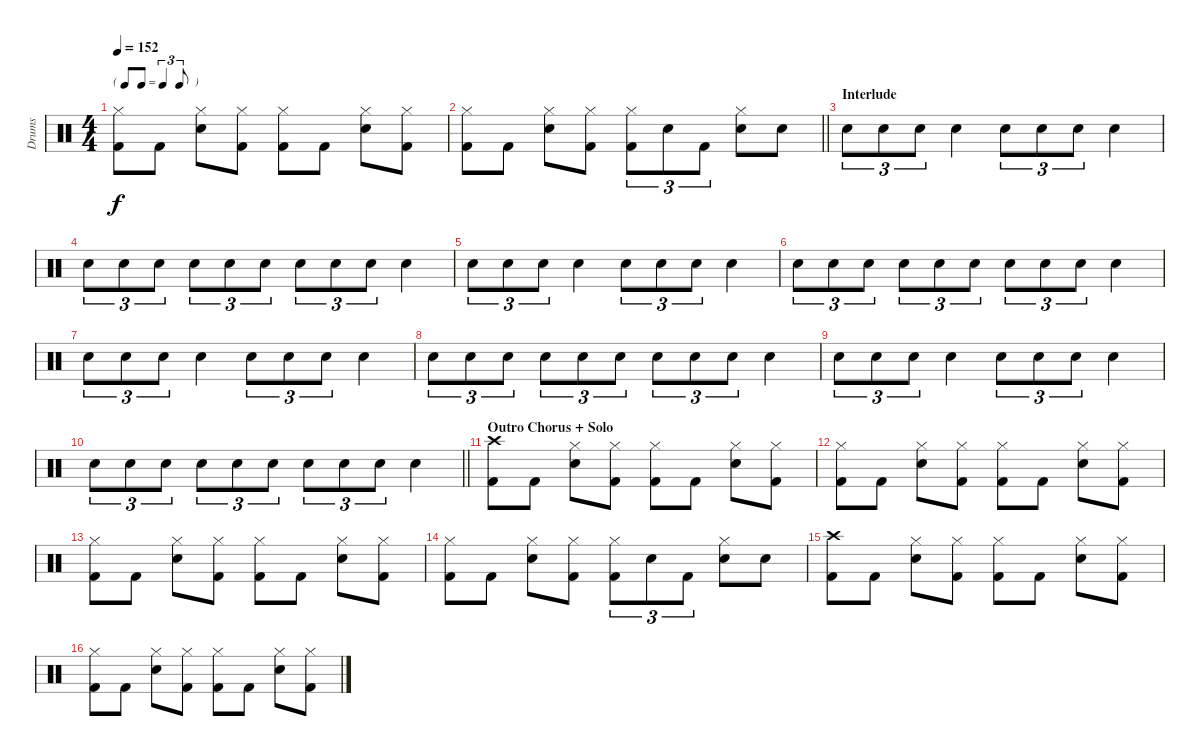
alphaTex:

\track ("Drums" "Drums") {instrument percussion}
\staff {score}
\articulation defaults
\ts (4 4)
\tf triplet8th
\tempo 152
\clef neutral
\ks c
("Hi-Hat (closed)" "Kick (hit) 2").8{dy f} "Kick (hit) 2".8 ("Hi-Hat (closed)" "Snare (hit) 2").8 ("Hi-Hat (closed)" "Kick (hit) 2").8 ("Hi-Hat (closed)" "Kick (hit) 2").8 "Kick (hit) 2".8 ("Hi-Hat (closed)" "Snare (hit) 2").8 ("Hi-Hat (closed)" "Kick (hit) 2").8 |
\barLineRight lightlight
("Hi-Hat (closed)" "Kick (hit) 2").8 "Kick (hit) 2".8 ("Hi-Hat (closed)" "Snare (hit) 2").8 ("Hi-Hat (closed)" "Kick (hit) 2").8 ("Hi-Hat (closed)" "Kick (hit) 2").8{tu (3 2)} "Snare (hit) 2".8{tu (3 2)} "Kick (hit) 2".8{tu (3 2)} ("Hi-Hat (closed)" "Snare (hit) 2").8 "Snare (hit) 2".8 |
\section ("" "Interlude")
"Snare (hit) 2".8{tu (3 2)} "Snare (hit) 2".8{tu (3 2)} "Snare (hit) 2".8{tu (3 2)} "Snare (hit) 2".4 "Snare (hit) 2".8{tu (3 2)} "Snare (hit) 2".8{tu (3 2)} "Snare (hit) 2".8{tu (3 2)} "Snare (hit) 2".4 |
"Snare (hit) 2".8{tu (3 2)} "Snare (hit) 2".8{tu (3 2)} "Snare (hit) 2".8{tu (3 2)} "Snare (hit) 2".8{tu (3 2)} "Snare (hit) 2".8{tu (3 2)} "Snare (hit) 2".8{tu (3 2)} "Snare (hit) 2".8{tu (3 2)} "Snare (hit) 2".8{tu (3 2)} "Snare (hit) 2".8{tu (3 2)} "Snare (hit) 2".4 |
"Snare (hit) 2".8{tu (3 2)} "Snare (hit) 2".8{tu (3 2)} "Snare (hit) 2".8{tu (3 2)} "Snare (hit) 2".4 "Snare (hit) 2".8{tu (3 2)} "Snare (hit) 2".8{tu (3 2)} "Snare (hit) 2".8{tu (3 2)} "Snare (hit) 2".4 |
"Snare (hit) 2".8{tu (3 2)} "Snare (hit) 2".8{tu (3 2)} "Snare (hit) 2".8{tu (3 2)} "Snare (hit) 2".8{tu (3 2)} "Snare (hit) 2".8{tu (3 2)} "Snare (hit) 2".8{tu (3 2)} "Snare (hit) 2".8{tu (3 2)} "Snare (hit) 2".8{tu (3 2)} "Snare (hit) 2".8{tu (3 2)} "Snare (hit) 2".4 |
"Snare (hit) 2".8{tu (3 2)} "Snare (hit) 2".8{tu (3 2)} "Snare (hit) 2".8{tu (3 2)} "Snare (hit) 2".4 "Snare (hit) 2".8{tu (3 2)} "Snare (hit) 2".8{tu (3 2)} "Snare (hit) 2".8{tu (3 2)} "Snare (hit) 2".4 |
"Snare (hit) 2".8{tu (3 2)} "Snare (hit) 2".8{tu (3 2)} "Snare (hit) 2".8{tu (3 2)} "Snare (hit) 2".8{tu (3 2)} "Snare (hit) 2".8{tu (3 2)} "Snare (hit) 2".8{tu (3 2)} "Snare (hit) 2".8{tu (3 2)} "Snare (hit) 2".8{tu (3 2)} "Snare (hit) 2".8{tu (3 2)} "Snare (hit) 2".4 |
"Snare (hit) 2".8{tu (3 2)} "Snare (hit) 2".8{tu (3 2)} "Snare (hit) 2".8{tu (3 2)} "Snare (hit) 2".4 "Snare (hit) 2".8{tu (3 2)} "Snare (hit) 2".8{tu (3 2)} "Snare (hit) 2".8{tu (3 2)} "Snare (hit) 2".4 |
\barLineRight lightlight "Snare (hit) 2".8{tu (3 2)} "Snare (hit) 2".8{tu (3 2)} "Snare (hit) 2".8{tu (3 2)} "Snare (hit) 2".8{tu (3 2)} "Snare (hit) 2".8{tu (3 2)} "Snare (hit) 2".8{tu (3 2)} "Snare (hit) 2".8{tu (3 2)} "Snare (hit) 2".8{tu (3 2)} "Snare (hit) 2".8{tu (3 2)} "Snare (hit) 2".4
|
\section ("" "Outro Chorus + Solo")
("Crash high (hit)" "Kick (hit) 2").8 "Kick (hit) 2".8 ("Hi-Hat (closed)" "Snare (hit) 2").8 ("Hi-Hat (closed)" "Kick (hit) 2").8 ("Hi-Hat (closed)" "Kick (hit) 2").8 "Kick (hit) 2".8 ("Hi-Hat (closed)" "Snare (hit) 2").8 ("Hi-Hat (closed)" "Kick (hit) 2").8 |
("Hi-Hat (closed)" "Kick (hit) 2").8 "Kick (hit) 2".8 ("Hi-Hat (closed)" "Snare (hit) 2").8 ("Hi-Hat (closed)" "Kick (hit) 2").8 ("Hi-Hat (closed)" "Kick (hit) 2").8 "Kick (hit) 2".8 ("Hi-Hat (closed)" "Snare (hit) 2").8 ("Hi-Hat (closed)" "Kick (hit) 2").8 |
("Hi-Hat (closed)" "Kick (hit) 2").8 "Kick (hit) 2".8 ("Hi-Hat (closed)" "Snare (hit) 2").8 ("Hi-Hat (closed)" "Kick (hit) 2").8 ("Hi-Hat (closed)" "Kick (hit) 2").8 "Kick (hit) 2".8 ("Hi-Hat (closed)" "Snare (hit) 2").8 ("Hi-Hat (closed)" "Kick (hit) 2").8 |
("Hi-Hat (closed)" "Kick (hit) 2").8 "Kick (hit) 2".8 ("Hi-Hat (closed)" "Snare (hit) 2").8 ("Hi-Hat (closed)" "Kick (hit) 2").8 ("Hi-Hat (closed)" "Kick (hit) 2").8{tu (3 2)} "Snare (hit) 2".8{tu (3 2)} "Kick (hit) 2".8{tu (3 2)} ("Hi-Hat (closed)" "Snare (hit) 2").8 "Snare (hit) 2".8 |
("Crash high (hit)" "Kick (hit) 2").8 "Kick (hit) 2".8 ("Hi-Hat (closed)" "Snare (hit) 2").8 ("Hi-Hat (closed)" "Kick (hit) 2").8 ("Hi-Hat (closed)" "Kick (hit) 2").8 "Kick (hit) 2".8 ("Hi-Hat (closed)" "Snare (hit) 2").8 ("Hi-Hat (closed)" "Kick (hit) 2").8 |
("Hi-Hat (closed)" "Kick (hit) 2").8 "Kick (hit) 2".8 ("Hi-Hat (closed)" "Snare (hit) 2").8 ("Hi-Hat (closed)" "Kick (hit) 2").8 ("Hi-Hat (closed)" "Kick (hit) 2").8 "Kick (hit) 2".8 ("Hi-Hat (closed)" "Snare (hit) 2").8 ("Hi-Hat (closed)" "Kick (hit) 2").8
